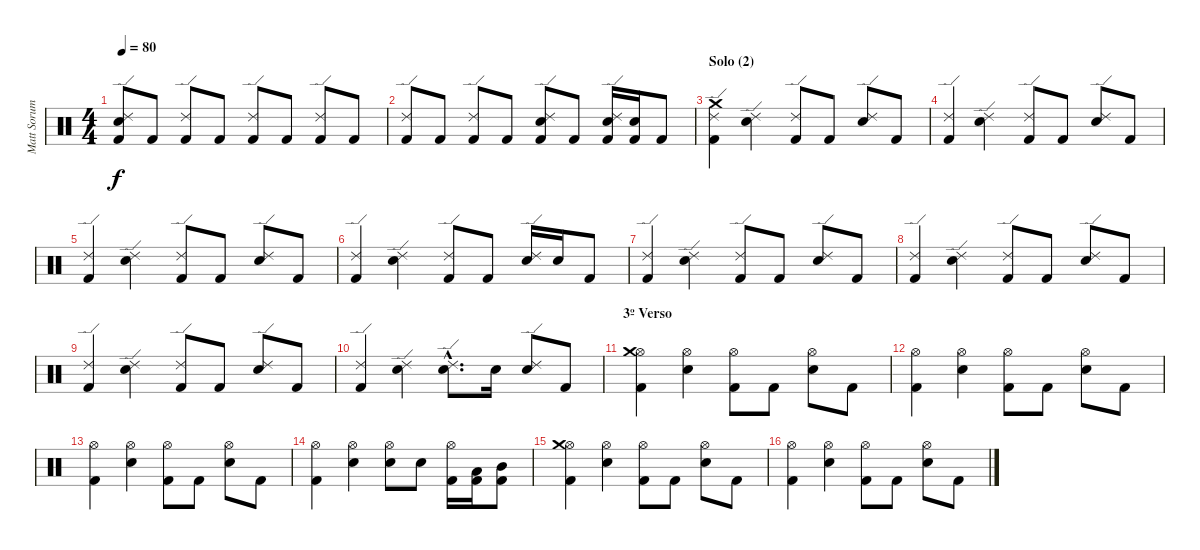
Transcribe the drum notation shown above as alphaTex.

\track ("Matt Sorum" "Matt Sorum") {instrument percussion}
\staff {score}
\articulation defaults
\ts (4 4)
\tempo 80
\clef neutral
\ks c
("Electric Snare (hit)" "Ride (edge) 2" "Kick (hit) 2").8{dy f} "Kick (hit) 2".8 ("Ride (edge) 2" "Kick (hit) 2").8 "Kick (hit) 2".8 ("Ride (edge) 2" "Kick (hit) 2").8 "Kick (hit) 2".8 ("Ride (edge) 2" "Kick (hit) 2").8 "Kick (hit) 2".8 |
("Ride (edge) 2" "Kick (hit) 2").8 "Kick (hit) 2".8 ("Ride (edge) 2" "Kick (hit) 2").8 "Kick (hit) 2".8 ("Electric Snare (hit)" "Ride (edge) 2" "Kick (hit) 2").8 "Kick (hit) 2".8 ("Electric Snare (hit)" "Ride (edge) 2" "Kick (hit) 2").16 ("Electric Snare (hit)" "Kick (hit) 2").16 "Kick (hit) 2".8 |
\section ("" "Solo (2)")
("Ride (edge) 2" "Kick (hit) 2" "Crash medium (hit)").4 ("Electric Snare (hit)" "Ride (edge) 2").4 ("Ride (edge) 2" "Kick (hit) 2").8 "Kick (hit) 2".8 ("Electric Snare (hit)" "Ride (edge) 2").8 "Kick (hit) 2".8 |
("Ride (edge) 2" "Kick (hit) 2").4 ("Electric Snare (hit)" "Ride (edge) 2").4 ("Ride (edge) 2" "Kick (hit) 2").8 "Kick (hit) 2".8 ("Electric Snare (hit)" "Ride (edge) 2").8 "Kick (hit) 2".8 |
("Ride (edge) 2" "Kick (hit) 2").4 ("Electric Snare (hit)" "Ride (edge) 2").4 ("Ride (edge) 2" "Kick (hit) 2").8 "Kick (hit) 2".8 ("Electric Snare (hit)" "Ride (edge) 2").8 "Kick (hit) 2".8 |
("Ride (edge) 2" "Kick (hit) 2").4 ("Electric Snare (hit)" "Ride (edge) 2").4 ("Ride (edge) 2" "Kick (hit) 2").8 "Kick (hit) 2".8 ("Electric Snare (hit)" "Ride (edge) 2").16 "Electric Snare (hit)".16 "Kick (hit) 2".8 |
("Ride (edge) 2" "Kick (hit) 2").4 ("Electric Snare (hit)" "Ride (edge) 2").4 ("Ride (edge) 2" "Kick (hit) 2").8 "Kick (hit) 2".8 ("Electric Snare (hit)" "Ride (edge) 2").8 "Kick (hit) 2".8 |
("Ride (edge) 2" "Kick (hit) 2").4 ("Electric Snare (hit)" "Ride (edge) 2").4 ("Ride (edge) 2" "Kick (hit) 2").8 "Kick (hit) 2".8 ("Electric Snare (hit)" "Ride (edge) 2").8 "Kick (hit) 2".8 |
("Ride (edge) 2" "Kick (hit) 2").4 ("Electric Snare (hit)" "Ride (edge) 2").4 ("Ride (edge) 2" "Kick (hit) 2").8 "Kick (hit) 2".8 ("Electric Snare (hit)" "Ride (edge) 2").8 "Kick (hit) 2".8 |
("Ride (edge) 2" "Kick (hit) 2").4 ("Electric Snare (hit)" "Ride (edge) 2").4 ("Electric Snare (hit)"{hac} "Ride (edge) 2"{hac}).8{d} "Electric Snare (hit)".16 ("Electric Snare (hit)" "Ride (edge) 2").8 "Kick (hit) 2".8 |
\section ("" "3º Verso")
("Hi-Hat (open)" "Kick (hit) 2" "Crash medium (hit)").4 ("Electric Snare (hit)" "Hi-Hat (open)").4 ("Hi-Hat (open)" "Kick (hit) 2").8 "Kick (hit) 2".8 ("Electric Snare (hit)" "Hi-Hat (open)").8 "Kick (hit) 2".8 |
("Hi-Hat (open)" "Kick (hit) 2").4 ("Electric Snare (hit)" "Hi-Hat (open)").4 ("Hi-Hat (open)" "Kick (hit) 2").8 "Kick (hit) 2".8 ("Electric Snare (hit)" "Hi-Hat (open)").8 "Kick (hit) 2".8 |
("Hi-Hat (open)" "Kick (hit) 2").4 ("Electric Snare (hit)" "Hi-Hat (open)").4 ("Hi-Hat (open)" "Kick (hit) 2").8 "Kick (hit) 2".8 ("Electric Snare (hit)" "Hi-Hat (open)").8 "Kick (hit) 2".8 |
("Hi-Hat (open)" "Kick (hit) 2").4 ("Electric Snare (hit)" "Hi-Hat (open)").4 ("Electric Snare (hit)" "Hi-Hat (open)").8 "Electric Snare (hit)".8 ("Hi-Hat (open)" "Kick (hit) 2").16 ("Low Tom (hit)" "Kick (hit) 2").16 ("Mid Tom (hit)" "Kick (hit) 2").8 |
("Hi-Hat (open)" "Kick (hit) 2" "Crash medium (hit)").4 ("Electric Snare (hit)" "Hi-Hat (open)").4 ("Hi-Hat (open)" "Kick (hit) 2").8 "Kick (hit) 2".8 ("Electric Snare (hit)" "Hi-Hat (open)").8 "Kick (hit) 2".8 |
("Hi-Hat (open)" "Kick (hit) 2").4 ("Electric Snare (hit)" "Hi-Hat (open)").4 ("Hi-Hat (open)" "Kick (hit) 2").8 "Kick (hit) 2".8 ("Electric Snare (hit)" "Hi-Hat (open)").8 "Kick (hit) 2".8
